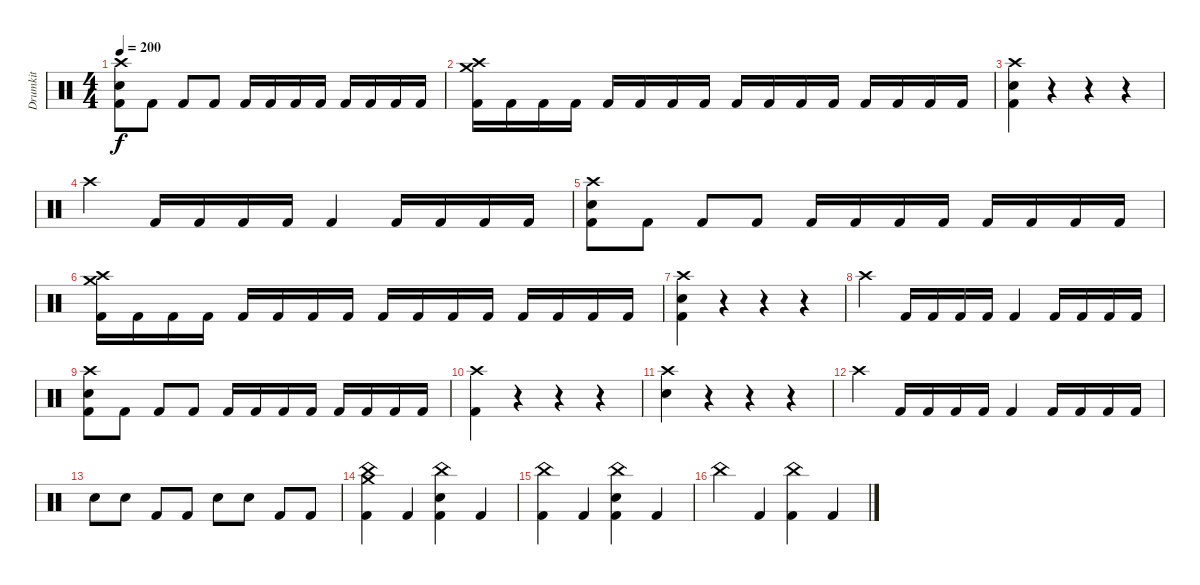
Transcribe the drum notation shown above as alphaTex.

\track ("Drumkit" "Drumkit") {instrument percussion}
\staff {score}
\articulation defaults
\ts (4 4)
\tempo 200
\clef neutral
\ks c
("Crash high (hit)" "Electric Snare (hit)" "Kick (hit) 2").8{dy f} "Kick (hit) 2".8 "Kick (hit) 2".8 "Kick (hit) 2".8 "Kick (hit) 2".16 "Kick (hit) 2".16 "Kick (hit) 2".16 "Kick (hit) 2".16 "Kick (hit) 2".16 "Kick (hit) 2".16 "Kick (hit) 2".16 "Kick (hit) 2".16 |
("Crash medium (hit)" "Crash high (hit)" "Kick (hit) 2").16 "Kick (hit) 2".16 "Kick (hit) 2".16 "Kick (hit) 2".16 "Kick (hit) 2".16 "Kick (hit) 2".16 "Kick (hit) 2".16 "Kick (hit) 2".16 "Kick (hit) 2".16 "Kick (hit) 2".16 "Kick (hit) 2".16 "Kick (hit) 2".16 "Kick (hit) 2".16 "Kick (hit) 2".16 "Kick (hit) 2".16 "Kick (hit) 2".16 |
("Crash high (hit)" "Electric Snare (hit)" "Kick (hit) 2").4 r.4 r.4 r.4 |
"Crash high (hit)".4 "Kick (hit) 2".16 "Kick (hit) 2".16 "Kick (hit) 2".16 "Kick (hit) 2".16 "Kick (hit) 2".4 "Kick (hit) 2".16 "Kick (hit) 2".16 "Kick (hit) 2".16 "Kick (hit) 2".16 |
("Crash high (hit)" "Electric Snare (hit)" "Kick (hit) 2").8 "Kick (hit) 2".8 "Kick (hit) 2".8 "Kick (hit) 2".8 "Kick (hit) 2".16 "Kick (hit) 2".16 "Kick (hit) 2".16 "Kick (hit) 2".16 "Kick (hit) 2".16 "Kick (hit) 2".16 "Kick (hit) 2".16 "Kick (hit) 2".16 |
("Crash medium (hit)" "Crash high (hit)" "Kick (hit) 2").16 "Kick (hit) 2".16 "Kick (hit) 2".16 "Kick (hit) 2".16 "Kick (hit) 2".16 "Kick (hit) 2".16 "Kick (hit) 2".16 "Kick (hit) 2".16 "Kick (hit) 2".16 "Kick (hit) 2".16 "Kick (hit) 2".16 "Kick (hit) 2".16 "Kick (hit) 2".16 "Kick (hit) 2".16 "Kick (hit) 2".16 "Kick (hit) 2".16 |
("Crash high (hit)" "Electric Snare (hit)" "Kick (hit) 2").4 r.4 r.4 r.4 |
"Crash high (hit)".4 "Kick (hit) 2".16 "Kick (hit) 2".16 "Kick (hit) 2".16 "Kick (hit) 2".16 "Kick (hit) 2".4 "Kick (hit) 2".16 "Kick (hit) 2".16 "Kick (hit) 2".16 "Kick (hit) 2".16 |
("Crash high (hit)" "Electric Snare (hit)" "Kick (hit) 2").8 "Kick (hit) 2".8 "Kick (hit) 2".8 "Kick (hit) 2".8 "Kick (hit) 2".16 "Kick (hit) 2".16 "Kick (hit) 2".16 "Kick (hit) 2".16 "Kick (hit) 2".16 "Kick (hit) 2".16 "Kick (hit) 2".16 "Kick (hit) 2".16 |
("Crash high (hit)" "Kick (hit) 2").4 r.4 r.4 r.4 |
("Crash high (hit)" "Electric Snare (hit)").4 r.4 r.4 r.4 |
"Crash high (hit)".4 "Kick (hit) 2".16 "Kick (hit) 2".16 "Kick (hit) 2".16 "Kick (hit) 2".16 "Kick (hit) 2".4 "Kick (hit) 2".16 "Kick (hit) 2".16 "Kick (hit) 2".16 "Kick (hit) 2".16 |
"Electric Snare (hit)".8 "Electric Snare (hit)".8 "Kick (hit) 2".8 "Kick (hit) 2".8 "Electric Snare (hit)".8 "Electric Snare (hit)".8 "Kick (hit) 2".8 "Kick (hit) 2".8 |
("Crash medium (hit)" "China (hit)" "Kick (hit) 2").4 "Kick (hit) 2".4 ("China (hit)" "Electric Snare (hit)" "Kick (hit) 2").4 "Kick (hit) 2".4 |
("China (hit)" "Kick (hit) 2").4 "Kick (hit) 2".4 ("China (hit)" "Electric Snare (hit)" "Kick (hit) 2").4 "Kick (hit) 2".4 |
"China (hit)".4 "Kick (hit) 2".4 ("China (hit)" "Kick (hit) 2").4 "Kick (hit) 2".4
